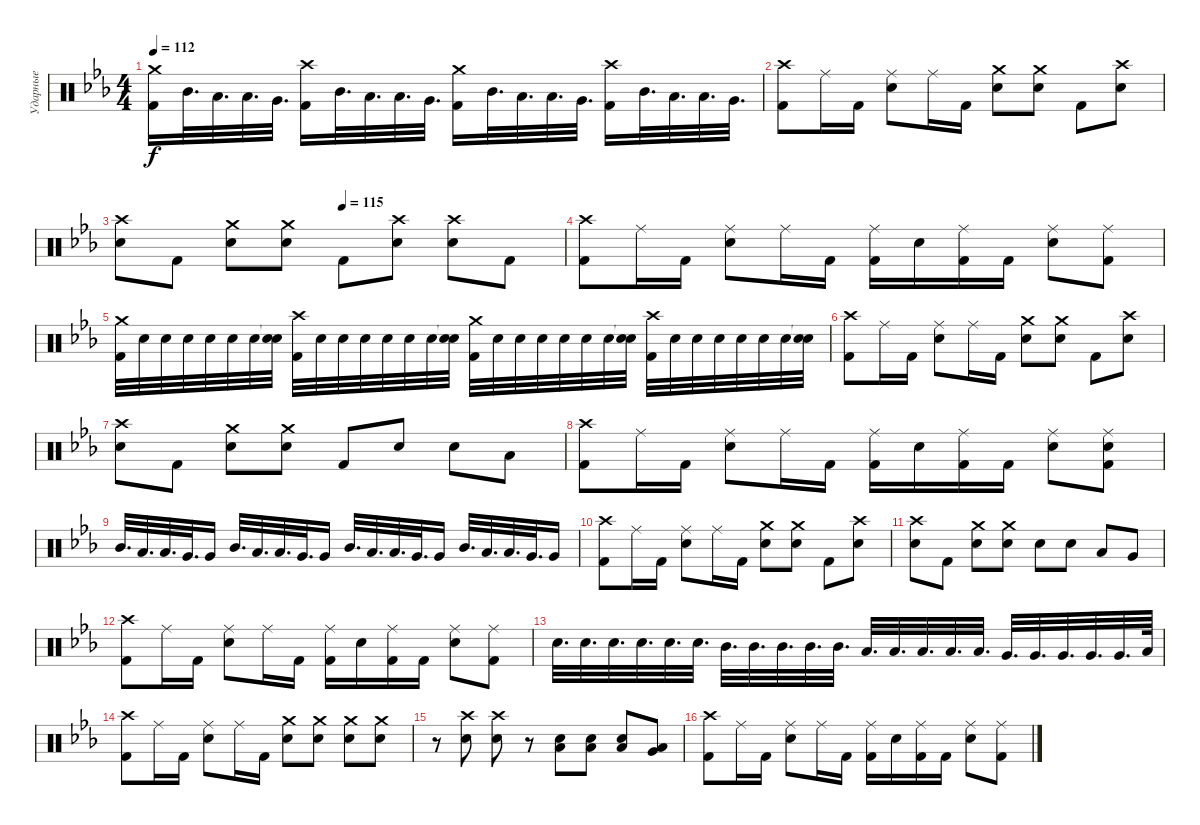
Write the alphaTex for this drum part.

\track ("Ударные" "Ударные") {instrument percussion}
\staff {score}
\articulation defaults
\ts (4 4)
\tempo 112
\clef neutral
\ks eb
("Crash medium (hit)" "Kick (hit) 2").16{dy f} "Mid Tom (hit)".32{d} "Low Tom (hit)".32{d} "Low Tom (hit)".32{d} "Very Low Tom (hit)".32{d} ("Crash high (hit)" "Kick (hit) 2").16 "Mid Tom (hit)".32{d} "Low Tom (hit)".32{d} "Low Tom (hit)".32{d} "Very Low Tom (hit)".32{d} ("Crash medium (hit)" "Kick (hit) 2").16 "Mid Tom (hit)".32{d} "Low Tom (hit)".32{d} "Low Tom (hit)".32{d} "Very Low Tom (hit)".32{d} ("Crash high (hit)" "Kick (hit) 2").16 "Mid Tom (hit)".32{d} "Low Tom (hit)".32{d} "Low Tom (hit)".32{d} "Very Low Tom (hit)".32{d} |
("Crash high (hit)" "Kick (hit) 2").8 "Ride (middle)".16 "Kick (hit) 2".16 ("Ride (middle)" "Electric Snare (hit)").8 "Ride (middle)".16 "Kick (hit) 2".16 ("Crash medium (hit)" "Electric Snare (hit)").8 ("Crash medium (hit)" "Electric Snare (hit)").8 "Kick (hit) 2".8 ("Crash high (hit)" "Electric Snare (hit)").8 |
\tempo (115 0.5)
("Crash high (hit)" "Electric Snare (hit)").8 "Kick (hit) 2".8 ("Crash medium (hit)" "Electric Snare (hit)").8 ("Crash medium (hit)" "Electric Snare (hit)").8 "Kick (hit) 2".8 ("Crash high (hit)" "Electric Snare (hit)").8 ("Crash high (hit)" "Electric Snare (hit)").8 "Kick (hit) 2".8 |
("Crash high (hit)" "Kick (hit) 2").8 "Ride (middle)".16 "Kick (hit) 2".16 ("Ride (middle)" "Electric Snare (hit)").8 "Ride (middle)".16 "Kick (hit) 2".16 ("Ride (middle)" "Kick (hit) 2").16 "Electric Snare (hit)".16 ("Ride (middle)" "Kick (hit) 2").16 "Kick (hit) 2".16 ("Ride (middle)" "Electric Snare (hit)").8 ("Ride (middle)" "Kick (hit) 2").8 |
("Crash medium (hit)" "Kick (hit) 2").32 "Electric Snare (hit)".32 "Electric Snare (hit)".32 "Electric Snare (hit)".32 "Electric Snare (hit)".32 "Electric Snare (hit)".32 "Electric Snare (hit)".32 ("Snare (hit)"{t} "Electric Snare (hit)").32 ("Crash high (hit)" "Kick (hit) 2").32 "Electric Snare (hit)".32 "Electric Snare (hit)".32 "Electric Snare (hit)".32 "Electric Snare (hit)".32 "Electric Snare (hit)".32 "Electric Snare (hit)".32 ("Snare (hit)"{t} "Electric Snare (hit)").32 ("Crash medium (hit)" "Kick (hit) 2").32 "Electric Snare (hit)".32 "Electric Snare (hit)".32 "Electric Snare (hit)".32 "Electric Snare (hit)".32 "Electric Snare (hit)".32 "Electric Snare (hit)".32 ("Snare (hit)"{t} "Electric Snare (hit)").32 ("Crash high (hit)" "Kick (hit) 2").32 "Electric Snare (hit)".32 "Electric Snare (hit)".32 "Electric Snare (hit)".32 "Electric Snare (hit)".32 "Electric Snare (hit)".32 "Electric Snare (hit)".32 ("Snare (hit)"{t} "Electric Snare (hit)").32 |
("Crash high (hit)" "Kick (hit) 2").8 "Ride (middle)".16 "Kick (hit) 2".16 ("Ride (middle)" "Electric Snare (hit)").8 "Ride (middle)".16 "Kick (hit) 2".16 ("Crash medium (hit)" "Electric Snare (hit)").8 ("Crash medium (hit)" "Electric Snare (hit)").8 "Kick (hit) 2".8 ("Crash high (hit)" "Electric Snare (hit)").8 |
("Crash high (hit)" "Electric Snare (hit)").8 "Kick (hit) 2".8 ("Crash medium (hit)" "Electric Snare (hit)").8 ("Crash medium (hit)" "Electric Snare (hit)").8 "Kick (hit) 2".8 "Electric Snare (hit)".8 "Electric Snare (hit)".8 "Low Tom (hit)".8 |
("Crash high (hit)" "Kick (hit) 2").8 "Ride (middle)".16 "Kick (hit) 2".16 ("Ride (middle)" "Electric Snare (hit)").8 "Ride (middle)".16 "Kick (hit) 2".16 ("Ride (middle)" "Kick (hit) 2").16 "Electric Snare (hit)".16 ("Ride (middle)" "Kick (hit) 2").16 "Kick (hit) 2".16 ("Ride (middle)" "Electric Snare (hit)").8 ("Ride (middle)" "Electric Snare (hit)" "Kick (hit) 2").8 |
"Mid Tom (hit)".32{d} "Low Tom (hit)".32{d} "Low Tom (hit)".32{d} "Very Low Tom (hit)".32{d} "Very Low Tom (hit)".16 "Mid Tom (hit)".32{d} "Low Tom (hit)".32{d} "Low Tom (hit)".32{d} "Very Low Tom (hit)".32{d} "Very Low Tom (hit)".16 "Mid Tom (hit)".32{d} "Low Tom (hit)".32{d} "Low Tom (hit)".32{d} "Very Low Tom (hit)".32{d} "Very Low Tom (hit)".16 "Mid Tom (hit)".32{d} "Low Tom (hit)".32{d} "Low Tom (hit)".32{d} "Very Low Tom (hit)".32{d} "Very Low Tom (hit)".16 |
("Crash high (hit)" "Kick (hit) 2").8 "Ride (middle)".16 "Kick (hit) 2".16 ("Ride (middle)" "Electric Snare (hit)").8 "Ride (middle)".16 "Kick (hit) 2".16 ("Crash medium (hit)" "Electric Snare (hit)").8 ("Crash medium (hit)" "Electric Snare (hit)").8 "Kick (hit) 2".8 ("Crash high (hit)" "Electric Snare (hit)").8 |
("Crash high (hit)" "Electric Snare (hit)").8 "Kick (hit) 2".8 ("Crash medium (hit)" "Electric Snare (hit)").8 ("Crash medium (hit)" "Electric Snare (hit)").8 "Electric Snare (hit)".8 "Electric Snare (hit)".8 "Low Tom (hit)".8 "Very Low Tom (hit)".8 |
("Crash high (hit)" "Kick (hit) 2").8 "Ride (middle)".16 "Kick (hit) 2".16 ("Ride (middle)" "Electric Snare (hit)").8 "Ride (middle)".16 "Kick (hit) 2".16 ("Ride (middle)" "Kick (hit) 2").16 "Electric Snare (hit)".16 ("Ride (middle)" "Kick (hit) 2").16 "Kick (hit) 2".16 ("Ride (middle)" "Electric Snare (hit)").8 ("Ride (middle)" "Kick (hit) 2").8 |
"Electric Snare (hit)".32{d} "Electric Snare (hit)".32{d} "Electric Snare (hit)".32{d} "Electric Snare (hit)".32{d} "Electric Snare (hit)".32{d} "Electric Snare (hit)".32{d} "Mid Tom (hit)".32{d} "Mid Tom (hit)".32{d} "Mid Tom (hit)".32{d} "Mid Tom (hit)".32{d} "Mid Tom (hit)".32{d} "Low Tom (hit)".32{d} "Low Tom (hit)".32{d} "Low Tom (hit)".32{d} "Low Tom (hit)".32{d} "Low Tom (hit)".32{d} "Very Low Tom (hit)".32{d} "Very Low Tom (hit)".32{d} "Very Low Tom (hit)".32{d} "Very Low Tom (hit)".32{d} "Very Low Tom (hit)".32{d} "Low Floor Tom (hit)".64 |
("Crash high (hit)" "Kick (hit) 2").8 "Ride (middle)".16 "Kick (hit) 2".16 ("Ride (middle)" "Electric Snare (hit)").8 "Ride (middle)".16 "Kick (hit) 2".16 ("Crash medium (hit)" "Electric Snare (hit)").8 ("Crash medium (hit)" "Electric Snare (hit)").8 ("Crash medium (hit)" "Electric Snare (hit)").8 ("Crash medium (hit)" "Electric Snare (hit)").8 |
r.8 ("Crash high (hit)" "Electric Snare (hit)").8 ("Crash high (hit)" "Electric Snare (hit)").8 r.8 ("Low Tom (hit)" "Electric Snare (hit)").8 ("Low Tom (hit)" "Electric Snare (hit)").8 ("Low Tom (hit)" "Electric Snare (hit)").8 ("Very Low Tom (hit)" "Low Tom (hit)").8 |
("Crash high (hit)" "Kick (hit) 2").8 "Ride (middle)".16 "Kick (hit) 2".16 ("Ride (middle)" "Electric Snare (hit)").8 "Ride (middle)".16 "Kick (hit) 2".16 ("Ride (middle)" "Kick (hit) 2").16 "Electric Snare (hit)".16 ("Ride (middle)" "Kick (hit) 2").16 "Kick (hit) 2".16 ("Ride (middle)" "Electric Snare (hit)").8 ("Ride (middle)" "Kick (hit) 2").8
